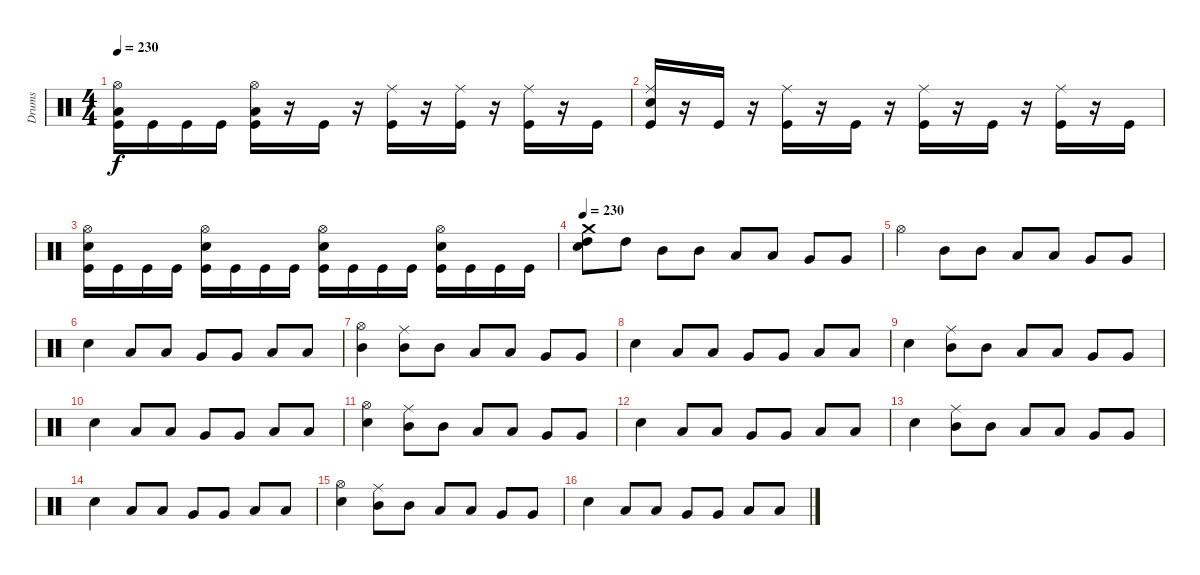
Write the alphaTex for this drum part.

\track ("Drums" "Drums") {instrument percussion}
\staff {score}
\articulation defaults
\ts (4 4)
\tempo 230
\clef neutral
\ks c
("Hi-Hat (open)" "Low Floor Tom (hit)" "Kick (hit)").16{dy f} "Kick (hit)".16 "Kick (hit)".16 "Kick (hit)".16 ("Hi-Hat (open)" "Low Floor Tom (hit)" "Kick (hit)").16 r.16 "Kick (hit)".16 r.16 ("Ride (middle)" "Kick (hit)").16 r.16 ("Ride (middle)" "Kick (hit)").16 r.16 ("Ride (middle)" "Kick (hit)").16 r.16 "Kick (hit)".16 |
("Ride (middle)" "Electric Snare (hit)" "Kick (hit)").16 r.16 "Kick (hit)".16 r.16 ("Ride (middle)" "Kick (hit)").16 r.16 "Kick (hit)".16 r.16 ("Ride (middle)" "Kick (hit)").16 r.16 "Kick (hit)".16 r.16 ("Ride (middle)" "Kick (hit)").16 r.16 "Kick (hit)".16 |
("Hi-Hat (open)" "Electric Snare (hit)" "Kick (hit)").16 "Kick (hit)".16 "Kick (hit)".16 "Kick (hit)".16 ("Hi-Hat (open)" "Electric Snare (hit)" "Kick (hit)").16 "Kick (hit)".16 "Kick (hit)".16 "Kick (hit)".16 ("Hi-Hat (open)" "Electric Snare (hit)" "Kick (hit)").16 "Kick (hit)".16 "Kick (hit)".16 "Kick (hit)".16 ("Hi-Hat (open)" "Electric Snare (hit)" "Kick (hit)").16 "Kick (hit)".16 "Kick (hit)".16 "Kick (hit)".16 |
\tempo 230
("Crash medium (hit)" "Electric Snare (hit)" "High Tom (hit)").8 "High Tom (hit)".8 "Mid Tom (hit)".8 "Mid Tom (hit)".8 "Low Tom (hit)".8 "Low Tom (hit)".8 "Very Low Tom (hit)".8 "Very Low Tom (hit)".8 |
"Hi-Hat (open)".4 "Mid Tom (hit)".8 "Mid Tom (hit)".8 "Low Tom (hit)".8 "Low Tom (hit)".8 "Very Low Tom (hit)".8 "Very Low Tom (hit)".8 |
"Electric Snare (hit)".4 "Low Tom (hit)".8 "Low Tom (hit)".8 "Very Low Tom (hit)".8 "Very Low Tom (hit)".8 "Low Floor Tom (hit)".8 "Low Floor Tom (hit)".8 |
("Hi-Hat (open)" "Mid Tom (hit)").4 ("Ride (middle)" "Mid Tom (hit)").8 "Mid Tom (hit)".8 "Low Tom (hit)".8 "Low Tom (hit)".8 "Very Low Tom (hit)".8 "Very Low Tom (hit)".8 |
"Electric Snare (hit)".4 "Low Tom (hit)".8 "Low Tom (hit)".8 "Very Low Tom (hit)".8 "Very Low Tom (hit)".8 "Low Floor Tom (hit)".8 "Low Floor Tom (hit)".8 |
"Electric Snare (hit)".4 ("Ride (middle)" "Mid Tom (hit)").8 "Mid Tom (hit)".8 "Low Tom (hit)".8 "Low Tom (hit)".8 "Very Low Tom (hit)".8 "Very Low Tom (hit)".8 |
"Electric Snare (hit)".4 "Low Tom (hit)".8 "Low Tom (hit)".8 "Very Low Tom (hit)".8 "Very Low Tom (hit)".8 "Low Floor Tom (hit)".8 "Low Floor Tom (hit)".8 |
("Hi-Hat (open)" "Electric Snare (hit)").4 ("Ride (middle)" "Mid Tom (hit)").8 "Mid Tom (hit)".8 "Low Tom (hit)".8 "Low Tom (hit)".8 "Very Low Tom (hit)".8 "Very Low Tom (hit)".8 |
"Electric Snare (hit)".4 "Low Tom (hit)".8 "Low Tom (hit)".8 "Very Low Tom (hit)".8 "Very Low Tom (hit)".8 "Low Floor Tom (hit)".8 "Low Floor Tom (hit)".8 |
"Electric Snare (hit)".4 ("Ride (middle)" "Mid Tom (hit)").8 "Mid Tom (hit)".8 "Low Tom (hit)".8 "Low Tom (hit)".8 "Very Low Tom (hit)".8 "Very Low Tom (hit)".8 |
"Electric Snare (hit)".4 "Low Tom (hit)".8 "Low Tom (hit)".8 "Very Low Tom (hit)".8 "Very Low Tom (hit)".8 "Low Floor Tom (hit)".8 "Low Floor Tom (hit)".8 |
("Hi-Hat (open)" "Electric Snare (hit)").4 ("Ride (middle)" "Mid Tom (hit)").8 "Mid Tom (hit)".8 "Low Tom (hit)".8 "Low Tom (hit)".8 "Very Low Tom (hit)".8 "Very Low Tom (hit)".8 |
"Electric Snare (hit)".4 "Low Tom (hit)".8 "Low Tom (hit)".8 "Very Low Tom (hit)".8 "Very Low Tom (hit)".8 "Low Floor Tom (hit)".8 "Low Floor Tom (hit)".8
